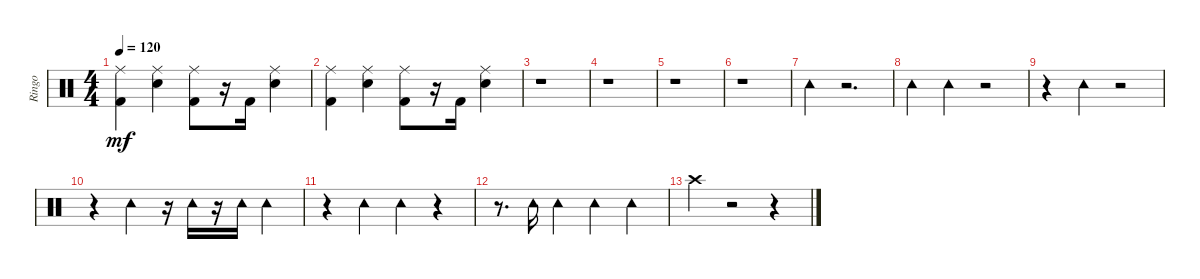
\track ("Ringo" "Ringo") {instrument percussion}
\staff {score}
\articulation defaults
\ts (4 4)
\tempo 120
\clef neutral
\ks c
("Kick (hit) 2" "Ride (middle)").4{dy mf} ("Electric Snare (hit)" "Ride (middle)").4 ("Ride (middle)" "Kick (hit) 2").8 r.16 "Kick (hit) 2".16 ("Electric Snare (hit)" "Ride (middle)").4 |
("Kick (hit) 2" "Ride (middle)").4 ("Electric Snare (hit)" "Ride (middle)").4 ("Ride (middle)" "Kick (hit) 2").8 r.16 "Kick (hit) 2".16 ("Electric Snare (hit)" "Ride (middle)").4 |
r.1 |
r.1 |
r.1 |
r.1 |
"Tambourine (hit)".4 r.2{d} |
"Tambourine (hit)".4 "Tambourine (hit)".4 r.2 |
r.4 "Tambourine (hit)".4 r.2 |
r.4 "Tambourine (hit)".4 r.16 "Tambourine (hit)".16 r.16 "Tambourine (hit)".16 "Tambourine (hit)".4 |
r.4 "Tambourine (hit)".4 "Tambourine (hit)".4 r.4 |
r.8{d} "Tambourine (hit)".16 "Tambourine (hit)".4 "Tambourine (hit)".4 "Tambourine (hit)".4 |
"Crash high (hit)".4 r.2 r.4
